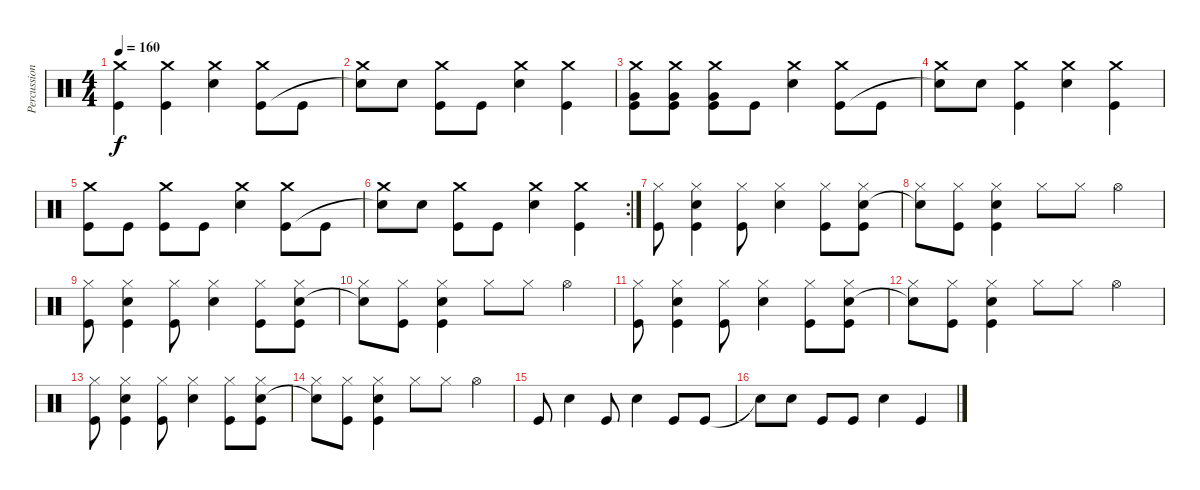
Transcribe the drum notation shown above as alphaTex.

\track ("Percussion" "Percussion") {instrument percussion}
\staff {score}
\articulation defaults
\ts (4 4)
\tempo 160
\clef neutral
\ks c
("Crash medium (hit)" "Kick (hit)").4{dy f} ("Crash medium (hit)" "Kick (hit)").4 ("Crash medium (hit)" "Electric Snare (hit)").4 ("Crash medium (hit)" "Kick (hit)").8 "Kick (hit)".8 |
("Crash medium (hit)" "Snare (hit)"{t}).8 "Electric Snare (hit)".8 ("Crash medium (hit)" "Kick (hit)").8 "Kick (hit)".8 ("Crash medium (hit)" "Electric Snare (hit)").4 ("Crash medium (hit)" "Kick (hit)").4 |
("Crash medium (hit)" "Very Low Tom (hit)" "Kick (hit)").8 ("Crash medium (hit)" "Very Low Tom (hit)" "Kick (hit)").8 ("Crash medium (hit)" "Very Low Tom (hit)" "Kick (hit)").8 "Kick (hit)".8 ("Crash medium (hit)" "Electric Snare (hit)").4 ("Crash medium (hit)" "Kick (hit)").8 "Kick (hit)".8 |
("Crash medium (hit)" "Snare (hit)"{t}).8 "Electric Snare (hit)".8 ("Crash medium (hit)" "Kick (hit)").4 ("Crash medium (hit)" "Electric Snare (hit)").4 ("Crash medium (hit)" "Kick (hit)").4 |
("Crash medium (hit)" "Kick (hit)").8 "Kick (hit)".8 ("Crash medium (hit)" "Kick (hit)").8 "Kick (hit)".8 ("Crash medium (hit)" "Electric Snare (hit)").4 ("Crash medium (hit)" "Kick (hit)").8 "Kick (hit)".8 |
\rc 2
("Crash medium (hit)" "Snare (hit)"{t}).8 "Electric Snare (hit)".8 ("Crash medium (hit)" "Kick (hit)").8 "Kick (hit)".8 ("Crash medium (hit)" "Electric Snare (hit)").4 ("Crash medium (hit)" "Kick (hit)").4 |
("Hi-Hat (closed)" "Kick (hit)").8 ("Hi-Hat (closed)" "Electric Snare (hit)" "Kick (hit)").4 ("Hi-Hat (closed)" "Kick (hit)").8 ("Hi-Hat (closed)" "Electric Snare (hit)").4 ("Hi-Hat (closed)" "Kick (hit)").8 ("Hi-Hat (closed)" "Electric Snare (hit)" "Kick (hit)").8 |
("Hi-Hat (closed)" "Snare (hit)"{t}).8 ("Hi-Hat (closed)" "Kick (hit)").8 ("Hi-Hat (closed)" "Electric Snare (hit)" "Kick (hit)").4 "Hi-Hat (closed)".8 "Hi-Hat (closed)".8 "Hi-Hat (open)".4 |
("Hi-Hat (closed)" "Kick (hit)").8 ("Hi-Hat (closed)" "Electric Snare (hit)" "Kick (hit)").4 ("Hi-Hat (closed)" "Kick (hit)").8 ("Hi-Hat (closed)" "Electric Snare (hit)").4 ("Hi-Hat (closed)" "Kick (hit)").8 ("Hi-Hat (closed)" "Electric Snare (hit)" "Kick (hit)").8 |
("Hi-Hat (closed)" "Snare (hit)"{t}).8 ("Hi-Hat (closed)" "Kick (hit)").8 ("Hi-Hat (closed)" "Electric Snare (hit)" "Kick (hit)").4 "Hi-Hat (closed)".8 "Hi-Hat (closed)".8 "Hi-Hat (open)".4 |
("Hi-Hat (closed)" "Kick (hit)").8 ("Hi-Hat (closed)" "Electric Snare (hit)" "Kick (hit)").4 ("Hi-Hat (closed)" "Kick (hit)").8 ("Hi-Hat (closed)" "Electric Snare (hit)").4 ("Hi-Hat (closed)" "Kick (hit)").8 ("Hi-Hat (closed)" "Electric Snare (hit)" "Kick (hit)").8 |
("Hi-Hat (closed)" "Snare (hit)"{t}).8 ("Hi-Hat (closed)" "Kick (hit)").8 ("Hi-Hat (closed)" "Electric Snare (hit)" "Kick (hit)").4 "Hi-Hat (closed)".8 "Hi-Hat (closed)".8 "Hi-Hat (open)".4 |
("Hi-Hat (closed)" "Kick (hit)").8 ("Hi-Hat (closed)" "Electric Snare (hit)" "Kick (hit)").4 ("Hi-Hat (closed)" "Kick (hit)").8 ("Hi-Hat (closed)" "Electric Snare (hit)").4 ("Hi-Hat (closed)" "Kick (hit)").8 ("Hi-Hat (closed)" "Electric Snare (hit)" "Kick (hit)").8 |
("Hi-Hat (closed)" "Snare (hit)"{t}).8 ("Hi-Hat (closed)" "Kick (hit)").8 ("Hi-Hat (closed)" "Electric Snare (hit)" "Kick (hit)").4 "Hi-Hat (closed)".8 "Hi-Hat (closed)".8 "Hi-Hat (open)".4 |
"Kick (hit)".8 "Electric Snare (hit)".4 "Kick (hit)".8 "Electric Snare (hit)".4 "Kick (hit)".8 "Kick (hit)".8 |
"Snare (hit)"{t}.8 "Electric Snare (hit)".8 "Kick (hit)".8 "Kick (hit)".8 "Electric Snare (hit)".4 "Kick (hit)".4
